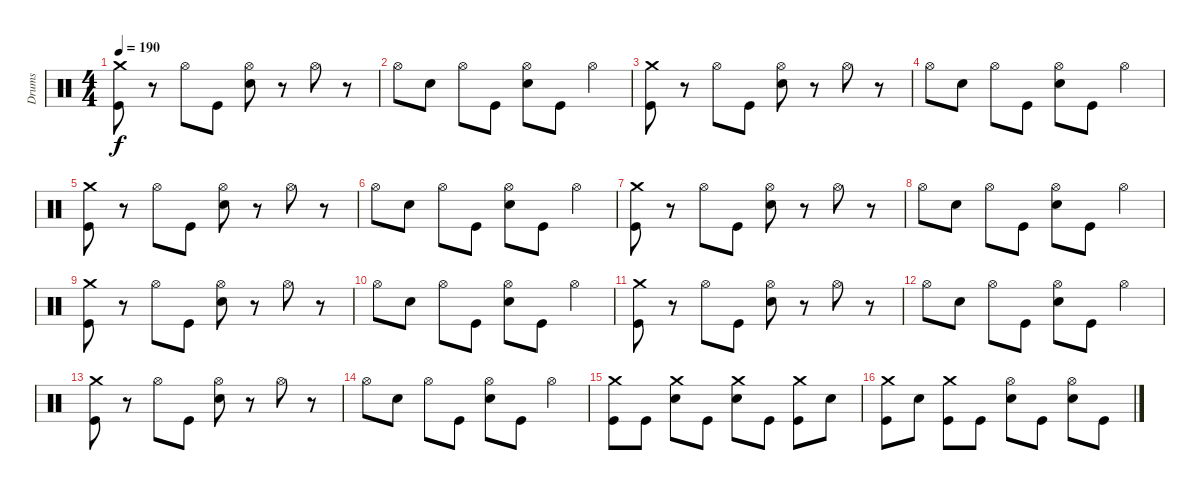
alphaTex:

\track ("Drums" "Drums") {instrument percussion}
\staff {score}
\articulation defaults
\ts (4 4)
\tempo 190
\clef neutral
\ks c
("Crash medium (hit)" "Kick (hit)").8{dy f} r.8 "Hi-Hat (open)".8 "Kick (hit)".8 ("Electric Snare (hit)" "Hi-Hat (open)").8 r.8 "Hi-Hat (open)".8 r.8 |
"Hi-Hat (open)".8 "Electric Snare (hit)".8 "Hi-Hat (open)".8 "Kick (hit)".8 ("Electric Snare (hit)" "Hi-Hat (open)").8 "Kick (hit)".8 "Hi-Hat (open)".4 |
("Crash medium (hit)" "Kick (hit)").8 r.8 "Hi-Hat (open)".8 "Kick (hit)".8 ("Electric Snare (hit)" "Hi-Hat (open)").8 r.8 "Hi-Hat (open)".8 r.8 |
"Hi-Hat (open)".8 "Electric Snare (hit)".8 "Hi-Hat (open)".8 "Kick (hit)".8 ("Electric Snare (hit)" "Hi-Hat (open)").8 "Kick (hit)".8 "Hi-Hat (open)".4 |
("Crash medium (hit)" "Kick (hit)").8 r.8 "Hi-Hat (open)".8 "Kick (hit)".8 ("Electric Snare (hit)" "Hi-Hat (open)").8 r.8 "Hi-Hat (open)".8 r.8 |
"Hi-Hat (open)".8 "Electric Snare (hit)".8 "Hi-Hat (open)".8 "Kick (hit)".8 ("Electric Snare (hit)" "Hi-Hat (open)").8 "Kick (hit)".8 "Hi-Hat (open)".4 |
("Crash medium (hit)" "Kick (hit)").8 r.8 "Hi-Hat (open)".8 "Kick (hit)".8 ("Electric Snare (hit)" "Hi-Hat (open)").8 r.8 "Hi-Hat (open)".8 r.8 |
"Hi-Hat (open)".8 "Electric Snare (hit)".8 "Hi-Hat (open)".8 "Kick (hit)".8 ("Electric Snare (hit)" "Hi-Hat (open)").8 "Kick (hit)".8 "Hi-Hat (open)".4 |
("Crash medium (hit)" "Kick (hit)").8 r.8 "Hi-Hat (open)".8 "Kick (hit)".8 ("Electric Snare (hit)" "Hi-Hat (open)").8 r.8 "Hi-Hat (open)".8 r.8 |
"Hi-Hat (open)".8 "Electric Snare (hit)".8 "Hi-Hat (open)".8 "Kick (hit)".8 ("Electric Snare (hit)" "Hi-Hat (open)").8 "Kick (hit)".8 "Hi-Hat (open)".4 |
("Crash medium (hit)" "Kick (hit)").8 r.8 "Hi-Hat (open)".8 "Kick (hit)".8 ("Electric Snare (hit)" "Hi-Hat (open)").8 r.8 "Hi-Hat (open)".8 r.8 |
"Hi-Hat (open)".8 "Electric Snare (hit)".8 "Hi-Hat (open)".8 "Kick (hit)".8 ("Electric Snare (hit)" "Hi-Hat (open)").8 "Kick (hit)".8 "Hi-Hat (open)".4 |
("Crash medium (hit)" "Kick (hit)").8 r.8 "Hi-Hat (open)".8 "Kick (hit)".8 ("Electric Snare (hit)" "Hi-Hat (open)").8 r.8 "Hi-Hat (open)".8 r.8 |
"Hi-Hat (open)".8 "Electric Snare (hit)".8 "Hi-Hat (open)".8 "Kick (hit)".8 ("Electric Snare (hit)" "Hi-Hat (open)").8 "Kick (hit)".8 "Hi-Hat (open)".4 |
("Crash medium (hit)" "Kick (hit)").8 "Kick (hit)".8 ("Crash medium (hit)" "Electric Snare (hit)").8 "Kick (hit)".8 ("Crash medium (hit)" "Electric Snare (hit)").8 "Kick (hit)".8 ("Crash medium (hit)" "Kick (hit)").8 "Electric Snare (hit)".8 |
("Crash medium (hit)" "Kick (hit)").8 "Electric Snare (hit)".8 ("Crash medium (hit)" "Kick (hit)").8 "Kick (hit)".8 ("Electric Snare (hit)" "Hi-Hat (open)").8 "Kick (hit)".8 ("Electric Snare (hit)" "Hi-Hat (open)").8 "Kick (hit)".8
